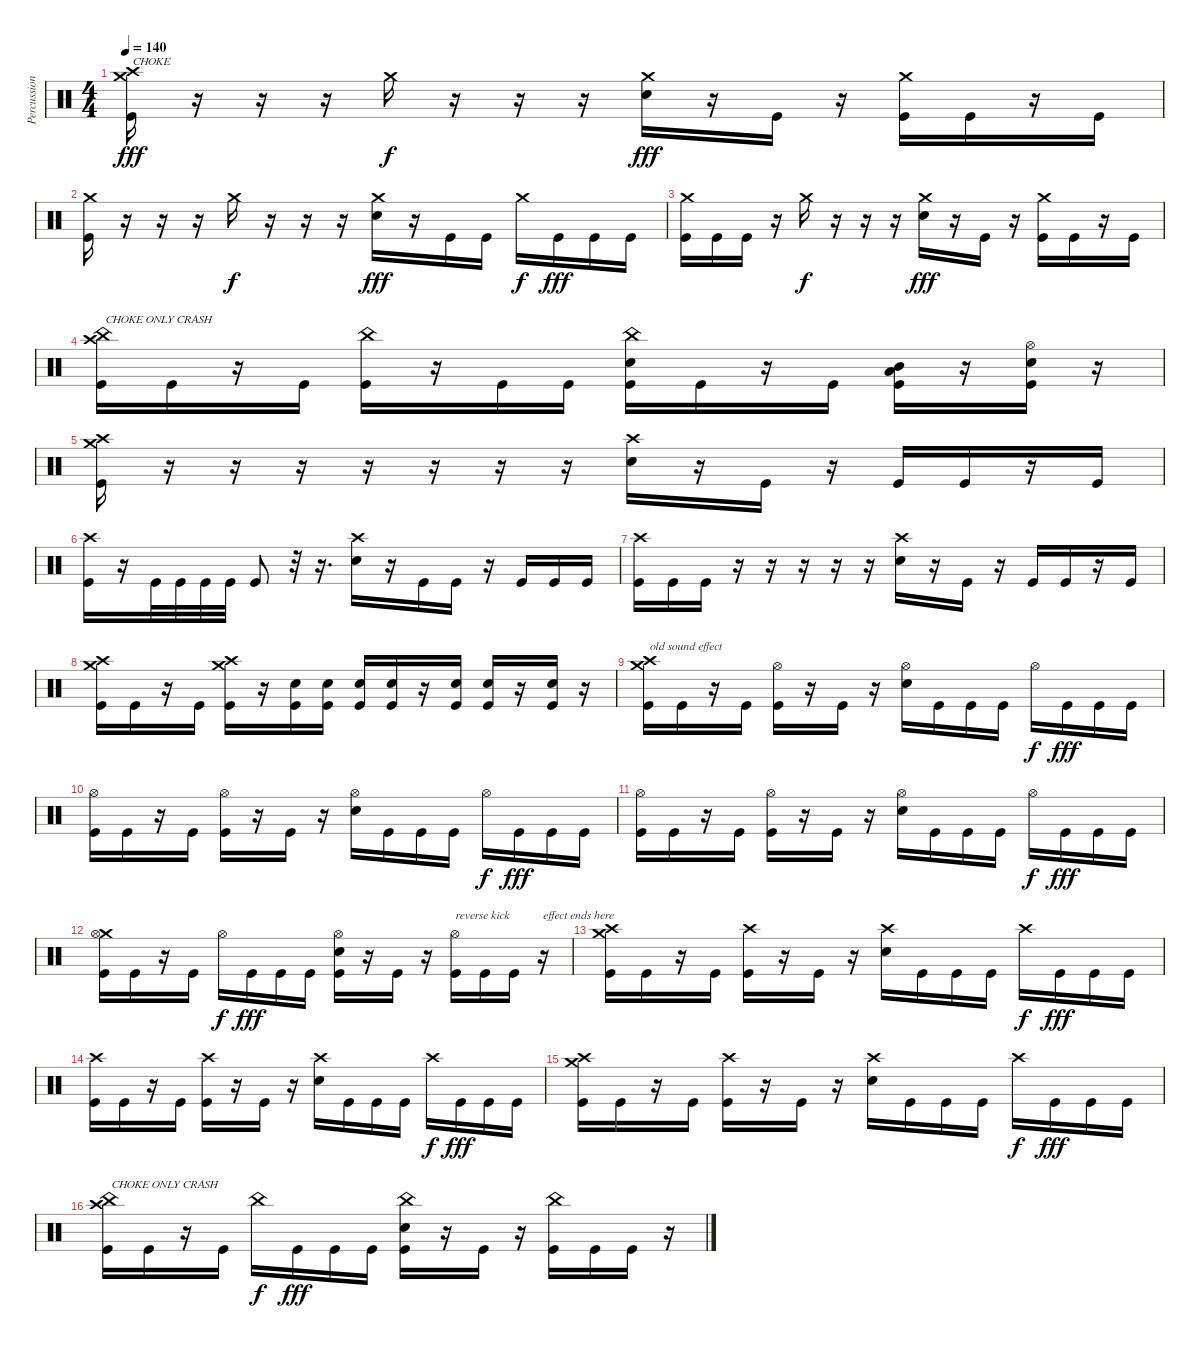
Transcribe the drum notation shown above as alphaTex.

\track ("Percussion" "Percussion") {instrument percussion}
\staff {score}
\articulation defaults
\ts (4 4)
\tempo 140
\clef neutral
\ks c
("Crash high (hit)" "Crash medium (hit)" "Kick (hit)").16{txt "CHOKE" dy fff} r.16 r.16 r.16 "Crash medium (hit)".16{dy f} r.16 r.16 r.16 ("Crash medium (hit)" "Snare (hit) 2").16{dy fff} r.16 "Kick (hit)".16 r.16 ("Crash medium (hit)" "Kick (hit)").16 "Kick (hit)".16 r.16 "Kick (hit)".16 |
("Crash medium (hit)" "Kick (hit)").16 r.16 r.16 r.16 "Crash medium (hit)".16{dy f} r.16 r.16 r.16 ("Crash medium (hit)" "Snare (hit) 2").16{dy fff} r.16 "Kick (hit)".16 "Kick (hit)".16 "Crash medium (hit)".16{dy f} "Kick (hit)".16{dy fff} "Kick (hit)".16 "Kick (hit)".16 |
("Crash medium (hit)" "Kick (hit)").16 "Kick (hit)".16 "Kick (hit)".16 r.16 "Crash medium (hit)".16{dy f} r.16 r.16 r.16 ("Crash medium (hit)" "Snare (hit) 2").16{dy fff} r.16 "Kick (hit)".16 r.16 ("Crash medium (hit)" "Kick (hit)").16 "Kick (hit)".16 r.16 "Kick (hit)".16 |
("Crash high (hit)" "China (hit)" "Kick (hit)").16{txt "CHOKE ONLY CRASH"} "Kick (hit)".16 r.16 "Kick (hit)".16 ("China (hit)" "Kick (hit)").16 r.16 "Kick (hit)".16 "Kick (hit)".16 ("China (hit)" "Snare (hit) 2" "Kick (hit)").16 "Kick (hit)".16 r.16 "Kick (hit)".16 ("Mid Tom (hit)" "Low Floor Tom (hit)" "Kick (hit)").16 r.16 ("Hi-Hat (open)" "Snare (hit) 2" "Kick (hit)").16 r.16 |
("Crash high (hit)" "Crash medium (hit)" "Kick (hit)").16 r.16 r.16 r.16 r.16 r.16 r.16 r.16 ("Crash high (hit)" "Snare (hit) 2").16 r.16 "Kick (hit)".16 r.16 "Kick (hit)".16 "Kick (hit)".16 r.16 "Kick (hit)".16 |
("Crash high (hit)" "Kick (hit)").16 r.16 "Kick (hit)".32 "Kick (hit)".32 "Kick (hit)".32 "Kick (hit)".32 "Kick (hit)".8 r.32 r.16{d} ("Crash high (hit)" "Snare (hit) 2").16 r.16 "Kick (hit)".16 "Kick (hit)".16 r.16 "Kick (hit)".16 "Kick (hit)".16 "Kick (hit)".16 |
("Crash high (hit)" "Kick (hit)").16 "Kick (hit)".16 "Kick (hit)".16 r.16 r.16 r.16 r.16 r.16 ("Crash high (hit)" "Snare (hit) 2").16 r.16 "Kick (hit)".16 r.16 "Kick (hit)".16 "Kick (hit)".16 r.16 "Kick (hit)".16 |
("Crash high (hit)" "Crash medium (hit)" "Kick (hit)").16 "Kick (hit)".16 r.16 "Kick (hit)".16 ("Crash high (hit)" "Crash medium (hit)" "Kick (hit)").16 r.16 ("Snare (hit) 2" "Kick (hit)").16 ("Snare (hit) 2" "Kick (hit)").16 ("Snare (hit) 2" "Kick (hit)").16 ("Snare (hit) 2" "Kick (hit)").16 r.16 ("Snare (hit) 2" "Kick (hit)").16 ("Snare (hit) 2" "Kick (hit)").16 r.16 ("Snare (hit) 2" "Kick (hit)").16 r.16 |
("Crash high (hit)" "Crash medium (hit)" "Kick (hit)").16{txt "old sound effect"} "Kick (hit)".16 r.16 "Kick (hit)".16 ("Hi-Hat (open)" "Kick (hit)").16 r.16 "Kick (hit)".16 r.16 ("Hi-Hat (open)" "Snare (hit) 2").16 "Kick (hit)".16 "Kick (hit)".16 "Kick (hit)".16 "Hi-Hat (open)".16{dy f} "Kick (hit)".16{dy fff} "Kick (hit)".16 "Kick (hit)".16 |
("Hi-Hat (open)" "Kick (hit)").16 "Kick (hit)".16 r.16 "Kick (hit)".16 ("Hi-Hat (open)" "Kick (hit)").16 r.16 "Kick (hit)".16 r.16 ("Hi-Hat (open)" "Snare (hit) 2").16 "Kick (hit)".16 "Kick (hit)".16 "Kick (hit)".16 "Hi-Hat (open)".16{dy f} "Kick (hit)".16{dy fff} "Kick (hit)".16 "Kick (hit)".16 |
("Hi-Hat (open)" "Kick (hit)").16 "Kick (hit)".16 r.16 "Kick (hit)".16 ("Hi-Hat (open)" "Kick (hit)").16 r.16 "Kick (hit)".16 r.16 ("Hi-Hat (open)" "Snare (hit) 2").16 "Kick (hit)".16 "Kick (hit)".16 "Kick (hit)".16 "Hi-Hat (open)".16{dy f} "Kick (hit)".16{dy fff} "Kick (hit)".16 "Kick (hit)".16 |
("Crash medium (hit)" "Hi-Hat (open)" "Kick (hit)").16 "Kick (hit)".16 r.16 "Kick (hit)".16 "Hi-Hat (open)".16{dy f} "Kick (hit)".16{dy fff} "Kick (hit)".16 "Kick (hit)".16 ("Hi-Hat (open)" "Snare (hit) 2" "Kick (hit)").16 r.16 "Kick (hit)".16 r.16 ("Hi-Hat (open)" "Kick (hit)").16{txt "reverse kick"} "Kick (hit)".16 "Kick (hit)".16 r.16{txt "effect ends here"} |
("Crash high (hit)" "Crash medium (hit)" "Kick (hit)").16 "Kick (hit)".16 r.16 "Kick (hit)".16 ("Crash high (hit)" "Kick (hit)").16 r.16 "Kick (hit)".16 r.16 ("Crash high (hit)" "Snare (hit) 2").16 "Kick (hit)".16 "Kick (hit)".16 "Kick (hit)".16 "Crash high (hit)".16{dy f} "Kick (hit)".16{dy fff} "Kick (hit)".16 "Kick (hit)".16 |
("Crash high (hit)" "Kick (hit)").16 "Kick (hit)".16 r.16 "Kick (hit)".16 ("Crash high (hit)" "Kick (hit)").16 r.16 "Kick (hit)".16 r.16 ("Crash high (hit)" "Snare (hit) 2").16 "Kick (hit)".16 "Kick (hit)".16 "Kick (hit)".16 "Crash high (hit)".16{dy f} "Kick (hit)".16{dy fff} "Kick (hit)".16 "Kick (hit)".16 |
("Crash high (hit)" "Crash medium (hit)" "Kick (hit)").16 "Kick (hit)".16 r.16 "Kick (hit)".16 ("Crash high (hit)" "Kick (hit)").16 r.16 "Kick (hit)".16 r.16 ("Crash high (hit)" "Snare (hit) 2").16 "Kick (hit)".16 "Kick (hit)".16 "Kick (hit)".16 "Crash high (hit)".16{dy f} "Kick (hit)".16{dy fff} "Kick (hit)".16 "Kick (hit)".16 |
("Crash high (hit)" "China (hit)" "Kick (hit)").16{txt "CHOKE ONLY CRASH"} "Kick (hit)".16 r.16 "Kick (hit)".16 "China (hit)".16{dy f} "Kick (hit)".16{dy fff} "Kick (hit)".16 "Kick (hit)".16 ("China (hit)" "Snare (hit) 2" "Kick (hit)").16 r.16 "Kick (hit)".16 r.16 ("China (hit)" "Kick (hit)").16 "Kick (hit)".16 "Kick (hit)".16 r.16
